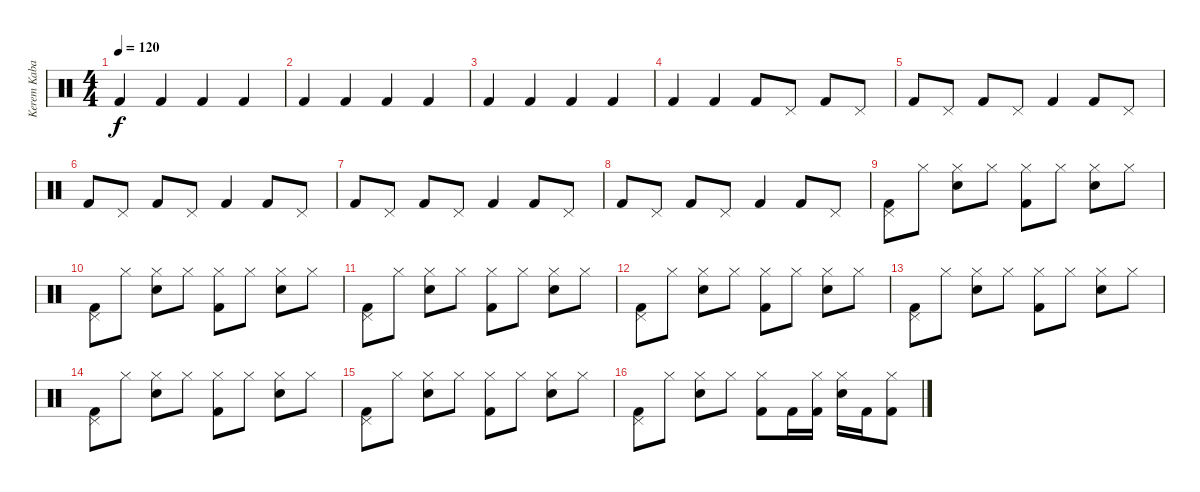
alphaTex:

\track ("Kerem Kabadayı" "Kerem Kaba") {instrument percussion}
\staff {score}
\articulation defaults
\ts (4 4)
\tempo 120
\clef neutral
\ks c "Kick (hit) 2".4{dy f} "Kick (hit) 2".4 "Kick (hit) 2".4 "Kick (hit) 2".4
|
"Kick (hit) 2".4 "Kick (hit) 2".4 "Kick (hit) 2".4 "Kick (hit) 2".4 |
"Kick (hit) 2".4 "Kick (hit) 2".4 "Kick (hit) 2".4 "Kick (hit) 2".4 |
"Kick (hit) 2".4 "Kick (hit) 2".4 "Kick (hit) 2".8 "Pedal Hi-Hat (hit)".8 "Kick (hit) 2".8 "Pedal Hi-Hat (hit)".8 |
"Kick (hit) 2".8 "Pedal Hi-Hat (hit)".8 "Kick (hit) 2".8 "Pedal Hi-Hat (hit)".8 "Kick (hit) 2".4 "Kick (hit) 2".8 "Pedal Hi-Hat (hit)".8 |
"Kick (hit) 2".8 "Pedal Hi-Hat (hit)".8 "Kick (hit) 2".8 "Pedal Hi-Hat (hit)".8 "Kick (hit) 2".4 "Kick (hit) 2".8 "Pedal Hi-Hat (hit)".8 |
"Kick (hit) 2".8 "Pedal Hi-Hat (hit)".8 "Kick (hit) 2".8 "Pedal Hi-Hat (hit)".8 "Kick (hit) 2".4 "Kick (hit) 2".8 "Pedal Hi-Hat (hit)".8 |
"Kick (hit) 2".8 "Pedal Hi-Hat (hit)".8 "Kick (hit) 2".8 "Pedal Hi-Hat (hit)".8 "Kick (hit) 2".4 "Kick (hit) 2".8 "Pedal Hi-Hat (hit)".8 |
("Pedal Hi-Hat (hit)" "Kick (hit) 2").8 "Hi-Hat (closed)".8 ("Hi-Hat (closed)" "Electric Snare (hit)").8 "Hi-Hat (closed)".8 ("Hi-Hat (closed)" "Kick (hit) 2").8 "Hi-Hat (closed)".8 ("Hi-Hat (closed)" "Electric Snare (hit)").8 "Hi-Hat (closed)".8 |
("Pedal Hi-Hat (hit)" "Kick (hit) 2").8 "Hi-Hat (closed)".8 ("Hi-Hat (closed)" "Electric Snare (hit)").8 "Hi-Hat (closed)".8 ("Hi-Hat (closed)" "Kick (hit) 2").8 "Hi-Hat (closed)".8 ("Hi-Hat (closed)" "Electric Snare (hit)").8 "Hi-Hat (closed)".8 |
("Pedal Hi-Hat (hit)" "Kick (hit) 2").8 "Hi-Hat (closed)".8 ("Hi-Hat (closed)" "Electric Snare (hit)").8 "Hi-Hat (closed)".8 ("Hi-Hat (closed)" "Kick (hit) 2").8 "Hi-Hat (closed)".8 ("Hi-Hat (closed)" "Electric Snare (hit)").8 "Hi-Hat (closed)".8 |
("Pedal Hi-Hat (hit)" "Kick (hit) 2").8 "Hi-Hat (closed)".8 ("Hi-Hat (closed)" "Electric Snare (hit)").8 "Hi-Hat (closed)".8 ("Hi-Hat (closed)" "Kick (hit) 2").8 "Hi-Hat (closed)".8 ("Hi-Hat (closed)" "Electric Snare (hit)").8 "Hi-Hat (closed)".8 |
("Pedal Hi-Hat (hit)" "Kick (hit) 2").8 "Hi-Hat (closed)".8 ("Hi-Hat (closed)" "Electric Snare (hit)").8 "Hi-Hat (closed)".8 ("Hi-Hat (closed)" "Kick (hit) 2").8 "Hi-Hat (closed)".8 ("Hi-Hat (closed)" "Electric Snare (hit)").8 "Hi-Hat (closed)".8 |
("Pedal Hi-Hat (hit)" "Kick (hit) 2").8 "Hi-Hat (closed)".8 ("Hi-Hat (closed)" "Electric Snare (hit)").8 "Hi-Hat (closed)".8 ("Hi-Hat (closed)" "Kick (hit) 2").8 "Hi-Hat (closed)".8 ("Hi-Hat (closed)" "Electric Snare (hit)").8 "Hi-Hat (closed)".8 |
("Pedal Hi-Hat (hit)" "Kick (hit) 2").8 "Hi-Hat (closed)".8 ("Hi-Hat (closed)" "Electric Snare (hit)").8 "Hi-Hat (closed)".8 ("Hi-Hat (closed)" "Kick (hit) 2").8 "Hi-Hat (closed)".8 ("Hi-Hat (closed)" "Electric Snare (hit)").8 "Hi-Hat (closed)".8 |
("Pedal Hi-Hat (hit)" "Kick (hit) 2").8 "Hi-Hat (closed)".8 ("Hi-Hat (closed)" "Electric Snare (hit)").8 "Hi-Hat (closed)".8 ("Hi-Hat (closed)" "Kick (hit) 2").8 "Kick (hit) 2".16 ("Hi-Hat (closed)" "Kick (hit) 2").16 ("Hi-Hat (closed)" "Electric Snare (hit)").16 "Kick (hit) 2".16 ("Hi-Hat (closed)" "Kick (hit) 2").8
